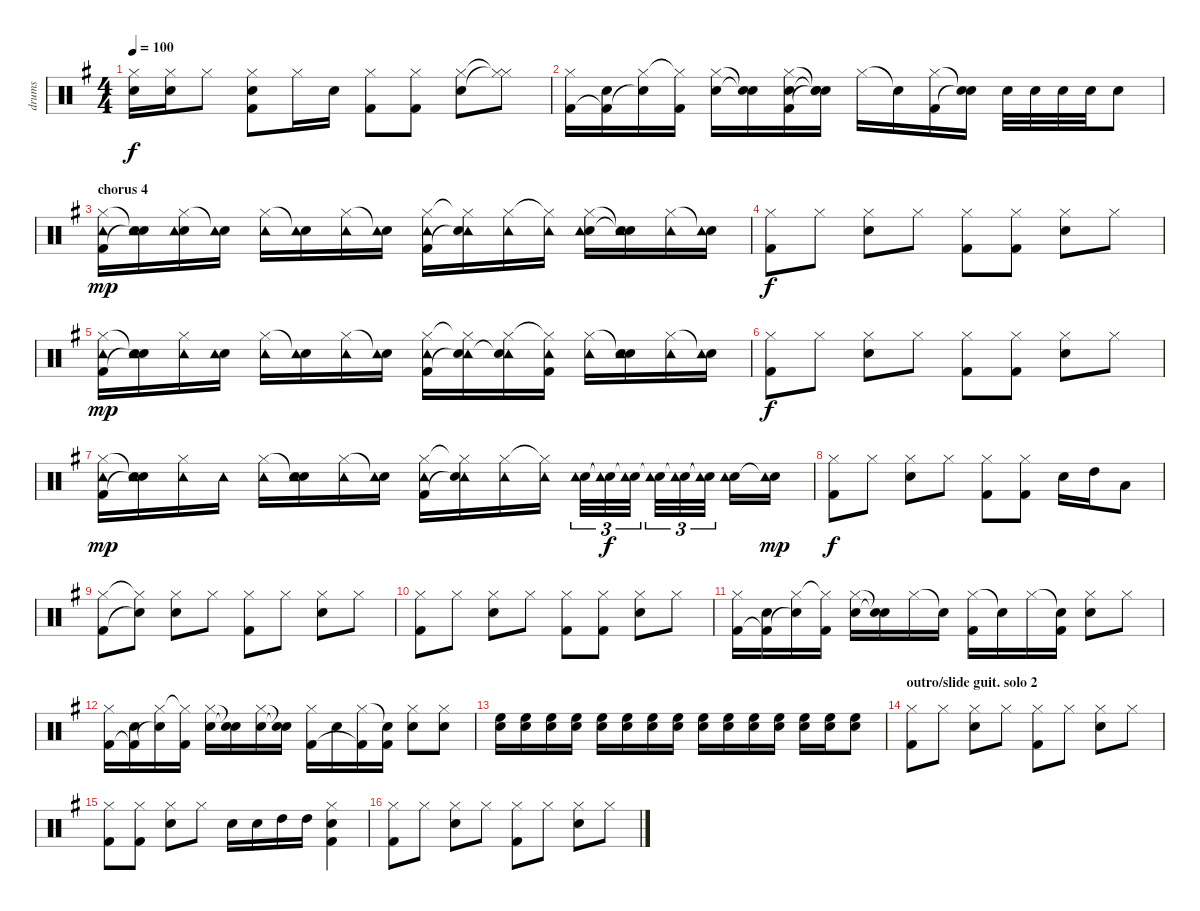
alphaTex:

\track ("drums" "drums") {instrument percussion}
\staff {score}
\articulation defaults
\ts (4 4)
\tempo 100
\clef neutral
\ks g
("Hi-Hat (closed)" "Snare (hit) 2").16{dy f} ("Hi-Hat (closed)" "Snare (hit) 2").16 "Hi-Hat (closed)".8 ("Hi-Hat (closed)" "Snare (hit) 2" "Kick (hit) 2").8 "Hi-Hat (closed)".16 "Snare (hit) 2".16 ("Hi-Hat (closed)" "Kick (hit) 2").8 ("Hi-Hat (closed)" "Kick (hit) 2").8 ("Hi-Hat (closed)" "Snare (hit) 2").8 ("Hi-Hat (closed)"{t} "Hi-Hat (closed)"{t}).8 |
("Hi-Hat (closed)" "Kick (hit) 2").16 ("Snare (hit) 2" "Kick (hit) 2"{t}).16 ("Hi-Hat (closed)" "Snare (hit)"{t}).16 ("Hi-Hat (closed)"{t} "Kick (hit) 2").16 ("Hi-Hat (closed)" "Snare (hit) 2").16 ("Snare (hit)"{t} "Snare (hit) 2"{t}).16 ("Hi-Hat (closed)" "Snare (hit) 2" "Kick (hit) 2").16 ("Snare (hit)"{t} "Snare (hit) 2"{t} "Snare (hit)"{t}).16 "Hi-Hat (closed)".16 "Snare (hit)"{t}.16 ("Hi-Hat (closed)" "Kick (hit) 2").16 ("Snare (hit)"{t} "Snare (hit)"{t}).16 "Snare (hit) 2".32 "Snare (hit) 2".32 "Snare (hit) 2".32 "Snare (hit) 2".32 "Snare (hit) 2".8 |
\section ("" "chorus 4")
("Hi-Hat (closed)" "Tambourine (hit)" "Kick (hit) 2").16{dy mp} ("Snare (hit)"{t} "Tambourine (hit)" "Snare (hit)"{t}).16 ("Hi-Hat (closed)" "Snare (hit) 2" "Tambourine (hit)").16 ("Snare (hit) 2"{t} "Tambourine (hit)").16 ("Hi-Hat (closed)" "Tambourine (hit)").16 ("Snare (hit)"{t} "Tambourine (hit)").16 ("Hi-Hat (closed)" "Tambourine (hit)").16 ("Snare (hit)"{t} "Tambourine (hit)").16 ("Hi-Hat (closed)" "Tambourine (hit)" "Kick (hit) 2").16 ("Hi-Hat (closed)"{t} "Tambourine (hit)" "Snare (hit)"{t}).16 ("Hi-Hat (closed)" "Tambourine (hit)").16 ("Hi-Hat (closed)"{t} "Tambourine (hit)").16 ("Hi-Hat (closed)" "Snare (hit) 2" "Tambourine (hit)").16 ("Snare (hit)"{t} "Snare (hit)"{t} "Tambourine (hit)").16 ("Hi-Hat (closed)" "Tambourine (hit)").16 ("Snare (hit)"{t} "Tambourine (hit)").16 |
("Hi-Hat (closed)" "Kick (hit) 2").8{dy f} "Hi-Hat (closed)".8 ("Hi-Hat (closed)" "Snare (hit) 2").8 "Hi-Hat (closed)".8 ("Hi-Hat (closed)" "Kick (hit) 2").8 ("Hi-Hat (closed)" "Kick (hit) 2").8 ("Hi-Hat (closed)" "Snare (hit) 2").8 "Hi-Hat (closed)".8 |
("Hi-Hat (closed)" "Tambourine (hit)" "Kick (hit) 2").16{dy mp} ("Snare (hit)"{t} "Tambourine (hit)" "Snare (hit)"{t}).16 ("Hi-Hat (closed)" "Tambourine (hit)").16 ("Snare (hit) 2" "Tambourine (hit)").16 ("Hi-Hat (closed)" "Tambourine (hit)").16 ("Snare (hit)"{t} "Tambourine (hit)").16 ("Hi-Hat (closed)" "Tambourine (hit)").16 ("Snare (hit)"{t} "Tambourine (hit)").16 ("Hi-Hat (closed)" "Tambourine (hit)" "Kick (hit) 2").16 ("Hi-Hat (closed)"{t} "Tambourine (hit)" "Snare (hit)"{t}).16 ("Hi-Hat (closed)" "Tambourine (hit)" "Snare (hit)"{t}).16 ("Hi-Hat (closed)"{t} "Tambourine (hit)" "Kick (hit) 2").16 ("Hi-Hat (closed)" "Tambourine (hit)").16 ("Snare (hit)"{t} "Snare (hit) 2" "Tambourine (hit)").16 ("Hi-Hat (closed)" "Tambourine (hit)").16 ("Snare (hit)"{t} "Tambourine (hit)").16 |
("Hi-Hat (closed)" "Kick (hit) 2").8{dy f} "Hi-Hat (closed)".8 ("Hi-Hat (closed)" "Snare (hit) 2").8 "Hi-Hat (closed)".8 ("Hi-Hat (closed)" "Kick (hit) 2").8 ("Hi-Hat (closed)" "Kick (hit) 2").8 ("Hi-Hat (closed)" "Snare (hit) 2").8 "Hi-Hat (closed)".8 |
("Hi-Hat (closed)" "Tambourine (hit)" "Kick (hit) 2").16{dy mp} ("Snare (hit)"{t} "Tambourine (hit)" "Snare (hit)"{t}).16 ("Hi-Hat (closed)" "Tambourine (hit)").16 "Tambourine (hit)".16 ("Hi-Hat (closed)" "Tambourine (hit)").16 ("Snare (hit)"{t} "Snare (hit) 2" "Tambourine (hit)").16 ("Hi-Hat (closed)" "Tambourine (hit)").16 ("Snare (hit)"{t} "Tambourine (hit)").16 ("Hi-Hat (closed)" "Tambourine (hit)" "Kick (hit) 2").16 ("Hi-Hat (closed)"{t} "Tambourine (hit)" "Snare (hit)"{t}).16 ("Hi-Hat (closed)" "Tambourine (hit)").16 ("Hi-Hat (closed)"{t} "Tambourine (hit)").16 ("Snare (hit) 2" "Tambourine (hit)").32{tu (3 2)} ("Snare (hit) 2"{t} "Tambourine (hit)"{t}).32{tu (3 2) dy f} ("Snare (hit) 2" "Tambourine (hit)"{t}).32{tu (3 2)} ("Snare (hit) 2"{t} "Tambourine (hit)").32{tu (3 2)} ("Snare (hit) 2" "Tambourine (hit)"{t}).32{tu (3 2)} ("Snare (hit) 2"{t} "Tambourine (hit)"{t}).32{tu (3 2)} ("Snare (hit) 2" "Tambourine (hit)").16 ("Snare (hit) 2"{t} "Tambourine (hit)").16{dy mp} |
("Hi-Hat (closed)" "Kick (hit) 2").8{dy f} "Hi-Hat (closed)".8 ("Hi-Hat (closed)" "Snare (hit) 2").8 "Hi-Hat (closed)".8 ("Hi-Hat (closed)" "Kick (hit) 2").8 ("Hi-Hat (closed)" "Kick (hit) 2").8 "Snare (hit) 2".16 "High Tom (hit)".16 "Low Tom (hit)".8 |
("Hi-Hat (closed)" "Kick (hit) 2").8 ("Hi-Hat (closed)"{t} "Snare (hit)"{t}).8 ("Hi-Hat (closed)" "Snare (hit) 2").8 "Hi-Hat (closed)".8 ("Hi-Hat (closed)" "Kick (hit) 2").8 "Hi-Hat (closed)".8 ("Hi-Hat (closed)" "Snare (hit) 2").8 "Hi-Hat (closed)".8 |
("Hi-Hat (closed)" "Kick (hit) 2").8 "Hi-Hat (closed)".8 ("Hi-Hat (closed)" "Snare (hit) 2").8 "Hi-Hat (closed)".8 ("Hi-Hat (closed)" "Kick (hit) 2").8 ("Hi-Hat (closed)" "Kick (hit) 2").8 ("Hi-Hat (closed)" "Snare (hit) 2").8 "Hi-Hat (closed)".8 |
("Hi-Hat (closed)" "Kick (hit) 2").16 ("Snare (hit) 2" "Kick (hit) 2"{t}).16 ("Hi-Hat (closed)" "Snare (hit)"{t}).16 ("Hi-Hat (closed)"{t} "Kick (hit) 2").16 ("Hi-Hat (closed)" "Snare (hit) 2").16 ("Snare (hit)"{t} "Snare (hit) 2"{t}).16 "Hi-Hat (closed)".16 "Snare (hit)"{t}.16 ("Hi-Hat (closed)" "Kick (hit) 2").16 "Snare (hit)"{t}.16 "Hi-Hat (closed)".16 ("Snare (hit)"{t} "Kick (hit) 2").16 ("Hi-Hat (closed)" "Snare (hit) 2").8 "Hi-Hat (closed)".8 |
("Hi-Hat (closed)" "Kick (hit) 2").16 ("Snare (hit) 2" "Kick (hit) 2"{t}).16 ("Hi-Hat (closed)" "Snare (hit)"{t}).16 ("Hi-Hat (closed)"{t} "Kick (hit) 2").16 ("Hi-Hat (closed)" "Snare (hit) 2").16 ("Snare (hit)"{t} "Snare (hit) 2"{t}).16 ("Hi-Hat (closed)" "Snare (hit) 2").16 ("Snare (hit)"{t} "Snare (hit) 2"{t}).16 ("Hi-Hat (closed)" "Kick (hit) 2").16 "Snare (hit) 2".16 ("Hi-Hat (closed)" "Kick (hit) 2"{t}).16 ("Snare (hit)"{t} "Kick (hit) 2").16 ("Hi-Hat (closed)" "Snare (hit) 2").8 ("Hi-Hat (closed)" "Snare (hit) 2").8 |
("Snare (hit) 2" "High Floor Tom (hit)").16 ("Snare (hit) 2" "High Floor Tom (hit)").16 ("Snare (hit) 2" "High Floor Tom (hit)").16 ("Snare (hit) 2" "High Floor Tom (hit)").16 ("Snare (hit) 2" "High Floor Tom (hit)").16 ("Snare (hit) 2" "High Floor Tom (hit)").16 ("Snare (hit) 2" "High Floor Tom (hit)").16 ("Snare (hit) 2" "High Floor Tom (hit)").16 ("Snare (hit) 2" "High Floor Tom (hit)").16 ("Snare (hit) 2" "High Floor Tom (hit)").16 ("Snare (hit) 2" "High Floor Tom (hit)").16 ("Snare (hit) 2" "High Floor Tom (hit)").16 ("Snare (hit) 2" "High Floor Tom (hit)").16 ("Snare (hit) 2" "High Floor Tom (hit)").16 ("Snare (hit) 2" "High Floor Tom (hit)").8 |
\section ("" "outro/slide guit. solo 2")
("Hi-Hat (closed)" "Kick (hit) 2").8 "Hi-Hat (closed)".8 ("Hi-Hat (closed)" "Snare (hit) 2").8 "Hi-Hat (closed)".8 ("Hi-Hat (closed)" "Kick (hit) 2").8 "Hi-Hat (closed)".8 ("Hi-Hat (closed)" "Snare (hit) 2").8 "Hi-Hat (closed)".8 |
("Hi-Hat (closed)" "Kick (hit) 2").8 ("Hi-Hat (closed)" "Kick (hit) 2").8 ("Hi-Hat (closed)" "Snare (hit) 2").8 "Hi-Hat (closed)".8 "Snare (hit) 2".16 "Snare (hit) 2".16 "High Tom (hit)".16 "High Tom (hit)".16 ("Hi-Hat (closed)" "Snare (hit) 2" "Kick (hit) 2").4 |
("Hi-Hat (closed)" "Kick (hit) 2").8 "Hi-Hat (closed)".8 ("Hi-Hat (closed)" "Snare (hit) 2").8 "Hi-Hat (closed)".8 ("Hi-Hat (closed)" "Kick (hit) 2").8 "Hi-Hat (closed)".8 ("Hi-Hat (closed)" "Snare (hit) 2").8 "Hi-Hat (closed)".8
